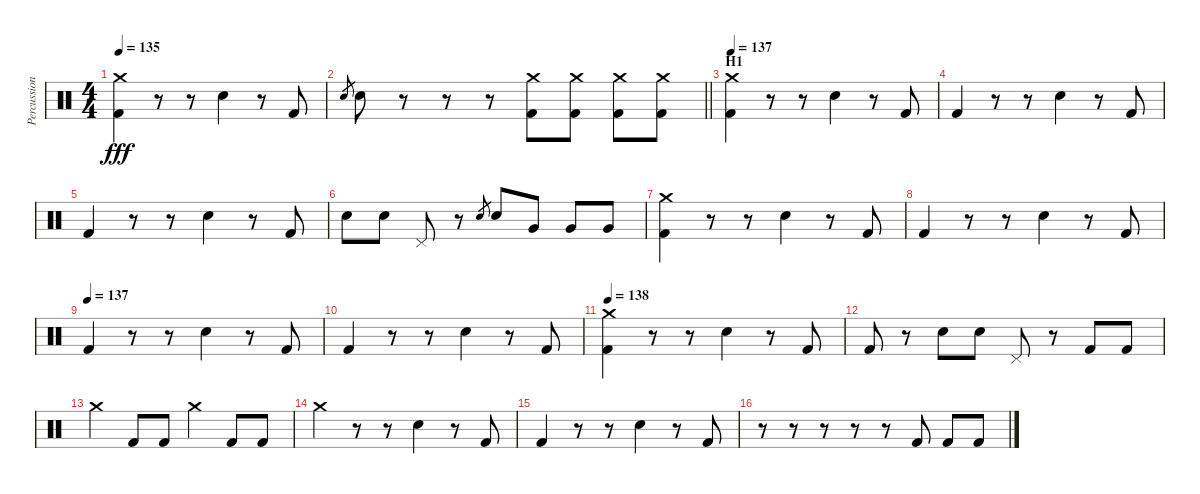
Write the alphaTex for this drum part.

\track ("Percussion" "Percussion") {instrument percussion}
\staff {score}
\articulation defaults
\ts (4 4)
\tempo 135
\clef neutral
\ks c
("Kick (hit) 2" "Crash medium (hit)").4{dy fff} r.8 r.8 "Electric Snare (hit)".4 r.8 "Kick (hit) 2".8 |
\barLineRight lightlight "Electric Snare (hit)".8{gr} "Electric Snare (hit)".8
r.8 r.8 r.8 ("Kick (hit) 2" "Crash medium (hit)").8 ("Kick (hit) 2" "Crash medium (hit)").8 ("Kick (hit) 2" "Crash medium (hit)").8 ("Kick (hit) 2" "Crash medium (hit)").8 |
\section ("" "H1")
\tempo 137
("Kick (hit) 2" "Crash medium (hit)").4 r.8 r.8 "Electric Snare (hit)".4 r.8 "Kick (hit) 2".8 |
"Kick (hit) 2".4 r.8 r.8 "Electric Snare (hit)".4 r.8 "Kick (hit) 2".8 |
"Kick (hit) 2".4 r.8 r.8 "Electric Snare (hit)".4 r.8 "Kick (hit) 2".8 |
"Electric Snare (hit)".8 "Electric Snare (hit)".8 "Pedal Hi-Hat (hit)".8 r.8 "Electric Snare (hit)".8{gr} "Electric Snare (hit)".8 "Very Low Tom (hit)".8 "Very Low Tom (hit)".8 "Very Low Tom (hit)".8 |
("Kick (hit) 2" "Crash medium (hit)").4 r.8 r.8 "Electric Snare (hit)".4 r.8 "Kick (hit) 2".8 |
"Kick (hit) 2".4 r.8 r.8 "Electric Snare (hit)".4 r.8 "Kick (hit) 2".8 |
\tempo (137)
"Kick (hit) 2".4 r.8 r.8 "Electric Snare (hit)".4 r.8 "Kick (hit) 2".8 |
"Kick (hit) 2".4 r.8 r.8 "Electric Snare (hit)".4 r.8 "Kick (hit) 2".8 |
\tempo 138
("Kick (hit) 2" "Crash medium (hit)").4 r.8 r.8 "Electric Snare (hit)".4 r.8 "Kick (hit) 2".8 |
"Kick (hit) 2".8 r.8 "Electric Snare (hit)".8 "Electric Snare (hit)".8 "Pedal Hi-Hat (hit)".8 r.8 "Kick (hit) 2".8 "Kick (hit) 2".8 |
"Crash medium (hit)".4 "Kick (hit) 2".8 "Kick (hit) 2".8 "Crash medium (hit)".4 "Kick (hit) 2".8 "Kick (hit) 2".8 |
"Crash medium (hit)".4 r.8 r.8 "Electric Snare (hit)".4 r.8 "Kick (hit) 2".8 |
"Kick (hit) 2".4 r.8 r.8 "Electric Snare (hit)".4 r.8 "Kick (hit) 2".8 |
r.8 r.8 r.8 r.8 r.8 "Kick (hit) 2".8 "Kick (hit) 2".8 "Kick (hit) 2".8
